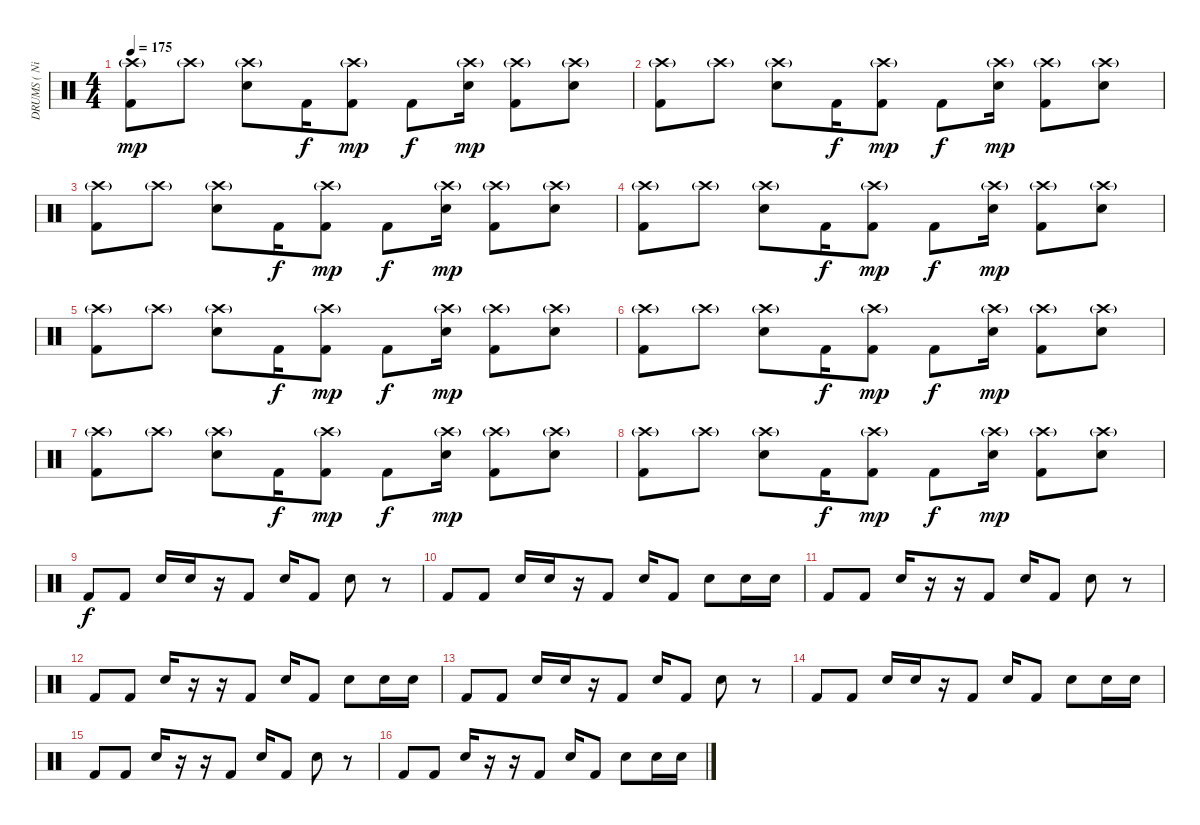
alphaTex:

\track ("DRUMS ( Nick Oshiro )" "DRUMS ( Ni") {instrument percussion}
\staff {score}
\articulation defaults
\ts (4 4)
\tempo 175
\clef neutral
\ks c
("Kick (hit) 2" "Crash high (hit)"{g}).8{dy mp} "Crash high (hit)"{g}.8 ("Electric Snare (hit)" "Crash high (hit)"{g}).8 "Kick (hit) 2".16{dy f} ("Kick (hit) 2" "Crash high (hit)"{g}).8{dy mp} "Kick (hit) 2".8{dy f} ("Electric Snare (hit)" "Crash high (hit)"{g}).16{dy mp} ("Kick (hit) 2" "Crash high (hit)"{g}).8 ("Electric Snare (hit)" "Crash high (hit)"{g}).8 |
("Kick (hit) 2" "Crash high (hit)"{g}).8 "Crash high (hit)"{g}.8 ("Electric Snare (hit)" "Crash high (hit)"{g}).8 "Kick (hit) 2".16{dy f} ("Kick (hit) 2" "Crash high (hit)"{g}).8{dy mp} "Kick (hit) 2".8{dy f} ("Electric Snare (hit)" "Crash high (hit)"{g}).16{dy mp} ("Kick (hit) 2" "Crash high (hit)"{g}).8 ("Electric Snare (hit)" "Crash high (hit)"{g}).8 |
("Kick (hit) 2" "Crash high (hit)"{g}).8 "Crash high (hit)"{g}.8 ("Electric Snare (hit)" "Crash high (hit)"{g}).8 "Kick (hit) 2".16{dy f} ("Kick (hit) 2" "Crash high (hit)"{g}).8{dy mp} "Kick (hit) 2".8{dy f} ("Electric Snare (hit)" "Crash high (hit)"{g}).16{dy mp} ("Kick (hit) 2" "Crash high (hit)"{g}).8 ("Electric Snare (hit)" "Crash high (hit)"{g}).8 |
("Kick (hit) 2" "Crash high (hit)"{g}).8 "Crash high (hit)"{g}.8 ("Electric Snare (hit)" "Crash high (hit)"{g}).8 "Kick (hit) 2".16{dy f} ("Kick (hit) 2" "Crash high (hit)"{g}).8{dy mp} "Kick (hit) 2".8{dy f} ("Electric Snare (hit)" "Crash high (hit)"{g}).16{dy mp} ("Kick (hit) 2" "Crash high (hit)"{g}).8 ("Electric Snare (hit)" "Crash high (hit)"{g}).8 |
("Kick (hit) 2" "Crash high (hit)"{g}).8 "Crash high (hit)"{g}.8 ("Electric Snare (hit)" "Crash high (hit)"{g}).8 "Kick (hit) 2".16{dy f} ("Kick (hit) 2" "Crash high (hit)"{g}).8{dy mp} "Kick (hit) 2".8{dy f} ("Electric Snare (hit)" "Crash high (hit)"{g}).16{dy mp} ("Kick (hit) 2" "Crash high (hit)"{g}).8 ("Electric Snare (hit)" "Crash high (hit)"{g}).8 |
("Kick (hit) 2" "Crash high (hit)"{g}).8 "Crash high (hit)"{g}.8 ("Electric Snare (hit)" "Crash high (hit)"{g}).8 "Kick (hit) 2".16{dy f} ("Kick (hit) 2" "Crash high (hit)"{g}).8{dy mp} "Kick (hit) 2".8{dy f} ("Electric Snare (hit)" "Crash high (hit)"{g}).16{dy mp} ("Kick (hit) 2" "Crash high (hit)"{g}).8 ("Electric Snare (hit)" "Crash high (hit)"{g}).8 |
("Kick (hit) 2" "Crash high (hit)"{g}).8 "Crash high (hit)"{g}.8 ("Electric Snare (hit)" "Crash high (hit)"{g}).8 "Kick (hit) 2".16{dy f} ("Kick (hit) 2" "Crash high (hit)"{g}).8{dy mp} "Kick (hit) 2".8{dy f} ("Electric Snare (hit)" "Crash high (hit)"{g}).16{dy mp} ("Kick (hit) 2" "Crash high (hit)"{g}).8 ("Electric Snare (hit)" "Crash high (hit)"{g}).8 |
("Kick (hit) 2" "Crash high (hit)"{g}).8 "Crash high (hit)"{g}.8 ("Electric Snare (hit)" "Crash high (hit)"{g}).8 "Kick (hit) 2".16{dy f} ("Kick (hit) 2" "Crash high (hit)"{g}).8{dy mp} "Kick (hit) 2".8{dy f} ("Electric Snare (hit)" "Crash high (hit)"{g}).16{dy mp} ("Kick (hit) 2" "Crash high (hit)"{g}).8 ("Electric Snare (hit)" "Crash high (hit)"{g}).8 |
"Kick (hit) 2".8{dy f} "Kick (hit) 2".8 "Electric Snare (hit)".16 "Electric Snare (hit)".16 r.16 "Kick (hit) 2".8 "Electric Snare (hit)".16 "Kick (hit) 2".8 "Electric Snare (hit)".8 r.8 |
"Kick (hit) 2".8 "Kick (hit) 2".8 "Electric Snare (hit)".16 "Electric Snare (hit)".16 r.16 "Kick (hit) 2".8 "Electric Snare (hit)".16 "Kick (hit) 2".8 "Electric Snare (hit)".8 "Electric Snare (hit)".16 "Electric Snare (hit)".16 |
"Kick (hit) 2".8 "Kick (hit) 2".8 "Electric Snare (hit)".16 r.16 r.16 "Kick (hit) 2".8 "Electric Snare (hit)".16 "Kick (hit) 2".8 "Electric Snare (hit)".8 r.8 |
"Kick (hit) 2".8 "Kick (hit) 2".8 "Electric Snare (hit)".16 r.16 r.16 "Kick (hit) 2".8 "Electric Snare (hit)".16 "Kick (hit) 2".8 "Electric Snare (hit)".8 "Electric Snare (hit)".16 "Electric Snare (hit)".16 |
"Kick (hit) 2".8 "Kick (hit) 2".8 "Electric Snare (hit)".16 "Electric Snare (hit)".16 r.16 "Kick (hit) 2".8 "Electric Snare (hit)".16 "Kick (hit) 2".8 "Electric Snare (hit)".8 r.8 |
"Kick (hit) 2".8 "Kick (hit) 2".8 "Electric Snare (hit)".16 "Electric Snare (hit)".16 r.16 "Kick (hit) 2".8 "Electric Snare (hit)".16 "Kick (hit) 2".8 "Electric Snare (hit)".8 "Electric Snare (hit)".16 "Electric Snare (hit)".16 |
"Kick (hit) 2".8 "Kick (hit) 2".8 "Electric Snare (hit)".16 r.16 r.16 "Kick (hit) 2".8 "Electric Snare (hit)".16 "Kick (hit) 2".8 "Electric Snare (hit)".8 r.8 |
"Kick (hit) 2".8 "Kick (hit) 2".8 "Electric Snare (hit)".16 r.16 r.16 "Kick (hit) 2".8 "Electric Snare (hit)".16 "Kick (hit) 2".8 "Electric Snare (hit)".8 "Electric Snare (hit)".16 "Electric Snare (hit)".16
